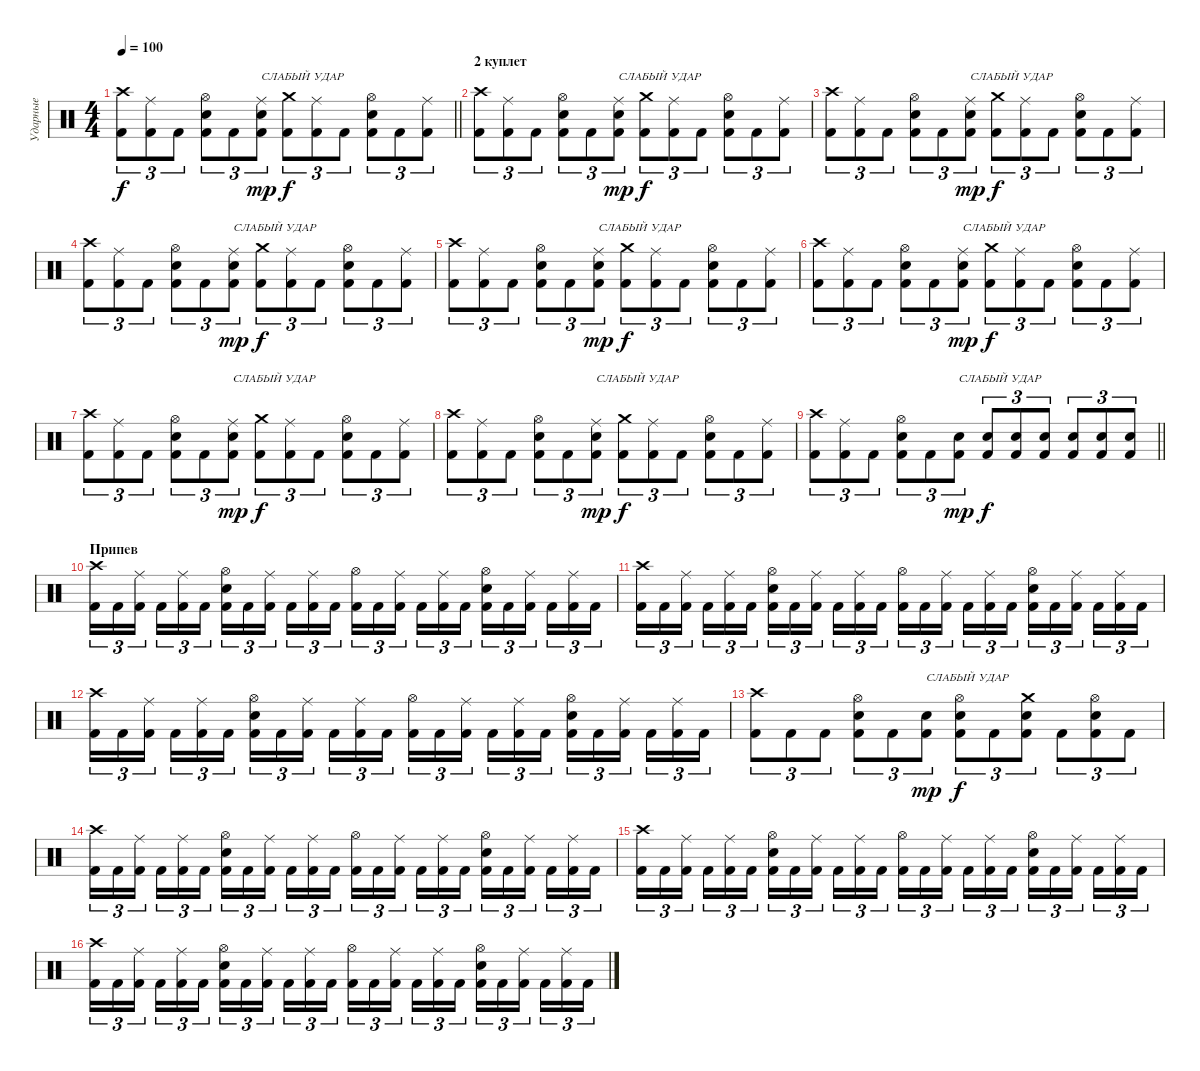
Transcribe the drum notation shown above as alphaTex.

\track ("Ударные" "Ударные") {instrument percussion}
\staff {score}
\articulation defaults
\ts (4 4)
\tempo 100
\clef neutral
\barLineRight lightlight
\ks c
("Kick (hit) 2" "Crash high (hit)").8{tu (3 2) dy f} ("Kick (hit) 2" "Ride (middle)").8{tu (3 2)} "Kick (hit) 2".8{tu (3 2)} ("Kick (hit) 2" "Snare (hit) 2" "Hi-Hat (open)").8{tu (3 2)} "Kick (hit) 2".8{tu (3 2)} ("Kick (hit) 2" "Snare (hit) 2" "Ride (middle)").8{tu (3 2) txt "СЛАБЫЙ УДАР" dy mp} ("Kick (hit) 2" "Crash medium (hit)").8{tu (3 2) dy f} ("Kick (hit) 2" "Ride (middle)").8{tu (3 2)} "Kick (hit) 2".8{tu (3 2)} ("Kick (hit) 2" "Snare (hit) 2" "Hi-Hat (open)").8{tu (3 2)} "Kick (hit) 2".8{tu (3 2)} ("Kick (hit) 2" "Ride (middle)").8{tu (3 2)} |
\section ("" "2 куплет")
("Kick (hit) 2" "Crash high (hit)").8{tu (3 2)} ("Kick (hit) 2" "Ride (middle)").8{tu (3 2)} "Kick (hit) 2".8{tu (3 2)} ("Kick (hit) 2" "Snare (hit) 2" "Hi-Hat (open)").8{tu (3 2)} "Kick (hit) 2".8{tu (3 2)} ("Kick (hit) 2" "Snare (hit) 2" "Ride (middle)").8{tu (3 2) txt "СЛАБЫЙ УДАР" dy mp} ("Kick (hit) 2" "Crash medium (hit)").8{tu (3 2) dy f} ("Kick (hit) 2" "Ride (middle)").8{tu (3 2)} "Kick (hit) 2".8{tu (3 2)} ("Kick (hit) 2" "Snare (hit) 2" "Hi-Hat (open)").8{tu (3 2)} "Kick (hit) 2".8{tu (3 2)} ("Kick (hit) 2" "Ride (middle)").8{tu (3 2)} |
("Kick (hit) 2" "Crash high (hit)").8{tu (3 2)} ("Kick (hit) 2" "Ride (middle)").8{tu (3 2)} "Kick (hit) 2".8{tu (3 2)} ("Kick (hit) 2" "Snare (hit) 2" "Hi-Hat (open)").8{tu (3 2)} "Kick (hit) 2".8{tu (3 2)} ("Kick (hit) 2" "Snare (hit) 2" "Ride (middle)").8{tu (3 2) txt "СЛАБЫЙ УДАР" dy mp} ("Kick (hit) 2" "Crash medium (hit)").8{tu (3 2) dy f} ("Kick (hit) 2" "Ride (middle)").8{tu (3 2)} "Kick (hit) 2".8{tu (3 2)} ("Kick (hit) 2" "Snare (hit) 2" "Hi-Hat (open)").8{tu (3 2)} "Kick (hit) 2".8{tu (3 2)} ("Kick (hit) 2" "Ride (middle)").8{tu (3 2)} |
("Kick (hit) 2" "Crash high (hit)").8{tu (3 2)} ("Kick (hit) 2" "Ride (middle)").8{tu (3 2)} "Kick (hit) 2".8{tu (3 2)} ("Kick (hit) 2" "Snare (hit) 2" "Hi-Hat (open)").8{tu (3 2)} "Kick (hit) 2".8{tu (3 2)} ("Kick (hit) 2" "Snare (hit) 2" "Ride (middle)").8{tu (3 2) txt "СЛАБЫЙ УДАР" dy mp} ("Kick (hit) 2" "Crash medium (hit)").8{tu (3 2) dy f} ("Kick (hit) 2" "Ride (middle)").8{tu (3 2)} "Kick (hit) 2".8{tu (3 2)} ("Kick (hit) 2" "Snare (hit) 2" "Hi-Hat (open)").8{tu (3 2)} "Kick (hit) 2".8{tu (3 2)} ("Kick (hit) 2" "Ride (middle)").8{tu (3 2)} |
("Kick (hit) 2" "Crash high (hit)").8{tu (3 2)} ("Kick (hit) 2" "Ride (middle)").8{tu (3 2)} "Kick (hit) 2".8{tu (3 2)} ("Kick (hit) 2" "Snare (hit) 2" "Hi-Hat (open)").8{tu (3 2)} "Kick (hit) 2".8{tu (3 2)} ("Kick (hit) 2" "Snare (hit) 2" "Ride (middle)").8{tu (3 2) txt "СЛАБЫЙ УДАР" dy mp} ("Kick (hit) 2" "Crash medium (hit)").8{tu (3 2) dy f} ("Kick (hit) 2" "Ride (middle)").8{tu (3 2)} "Kick (hit) 2".8{tu (3 2)} ("Kick (hit) 2" "Snare (hit) 2" "Hi-Hat (open)").8{tu (3 2)} "Kick (hit) 2".8{tu (3 2)} ("Kick (hit) 2" "Ride (middle)").8{tu (3 2)} |
("Kick (hit) 2" "Crash high (hit)").8{tu (3 2)} ("Kick (hit) 2" "Ride (middle)").8{tu (3 2)} "Kick (hit) 2".8{tu (3 2)} ("Kick (hit) 2" "Snare (hit) 2" "Hi-Hat (open)").8{tu (3 2)} "Kick (hit) 2".8{tu (3 2)} ("Kick (hit) 2" "Snare (hit) 2" "Ride (middle)").8{tu (3 2) txt "СЛАБЫЙ УДАР" dy mp} ("Kick (hit) 2" "Crash medium (hit)").8{tu (3 2) dy f} ("Kick (hit) 2" "Ride (middle)").8{tu (3 2)} "Kick (hit) 2".8{tu (3 2)} ("Kick (hit) 2" "Snare (hit) 2" "Hi-Hat (open)").8{tu (3 2)} "Kick (hit) 2".8{tu (3 2)} ("Kick (hit) 2" "Ride (middle)").8{tu (3 2)} |
("Kick (hit) 2" "Crash high (hit)").8{tu (3 2)} ("Kick (hit) 2" "Ride (middle)").8{tu (3 2)} "Kick (hit) 2".8{tu (3 2)} ("Kick (hit) 2" "Snare (hit) 2" "Hi-Hat (open)").8{tu (3 2)} "Kick (hit) 2".8{tu (3 2)} ("Kick (hit) 2" "Snare (hit) 2" "Ride (middle)").8{tu (3 2) txt "СЛАБЫЙ УДАР" dy mp} ("Kick (hit) 2" "Crash medium (hit)").8{tu (3 2) dy f} ("Kick (hit) 2" "Ride (middle)").8{tu (3 2)} "Kick (hit) 2".8{tu (3 2)} ("Kick (hit) 2" "Snare (hit) 2" "Hi-Hat (open)").8{tu (3 2)} "Kick (hit) 2".8{tu (3 2)} ("Kick (hit) 2" "Ride (middle)").8{tu (3 2)} |
("Kick (hit) 2" "Crash high (hit)").8{tu (3 2)} ("Kick (hit) 2" "Ride (middle)").8{tu (3 2)} "Kick (hit) 2".8{tu (3 2)} ("Kick (hit) 2" "Snare (hit) 2" "Hi-Hat (open)").8{tu (3 2)} "Kick (hit) 2".8{tu (3 2)} ("Kick (hit) 2" "Snare (hit) 2" "Ride (middle)").8{tu (3 2) txt "СЛАБЫЙ УДАР" dy mp} ("Kick (hit) 2" "Crash medium (hit)").8{tu (3 2) dy f} ("Kick (hit) 2" "Ride (middle)").8{tu (3 2)} "Kick (hit) 2".8{tu (3 2)} ("Kick (hit) 2" "Snare (hit) 2" "Hi-Hat (open)").8{tu (3 2)} "Kick (hit) 2".8{tu (3 2)} ("Kick (hit) 2" "Ride (middle)").8{tu (3 2)} |
\barLineRight lightlight
("Kick (hit) 2" "Crash high (hit)").8{tu (3 2)} ("Kick (hit) 2" "Ride (middle)").8{tu (3 2)} "Kick (hit) 2".8{tu (3 2)} ("Kick (hit) 2" "Snare (hit) 2" "Hi-Hat (open)").8{tu (3 2)} "Kick (hit) 2".8{tu (3 2)} ("Kick (hit) 2" "Snare (hit) 2").8{tu (3 2) txt "СЛАБЫЙ УДАР" dy mp} ("Kick (hit) 2" "Snare (hit) 2").8{tu (3 2) dy f} ("Kick (hit) 2" "Snare (hit) 2").8{tu (3 2)} ("Kick (hit) 2" "Snare (hit) 2").8{tu (3 2)} ("Kick (hit) 2" "Snare (hit) 2").8{tu (3 2)} ("Kick (hit) 2" "Snare (hit) 2").8{tu (3 2)} ("Kick (hit) 2" "Snare (hit) 2").8{tu (3 2)} |
\section ("" "Припев")
("Kick (hit) 2" "Crash high (hit)").16{tu (3 2)} "Kick (hit) 2".16{tu (3 2)} ("Kick (hit) 2" "Ride (middle)").16{tu (3 2) beam splitsecondary} "Kick (hit) 2".16{tu (3 2)} ("Kick (hit) 2" "Ride (middle)").16{tu (3 2)} "Kick (hit) 2".16{tu (3 2)} ("Kick (hit) 2" "Snare (hit) 2" "Hi-Hat (open)").16{tu (3 2)} "Kick (hit) 2".16{tu (3 2)} ("Kick (hit) 2" "Ride (middle)").16{tu (3 2) beam splitsecondary} "Kick (hit) 2".16{tu (3 2)} ("Kick (hit) 2" "Ride (middle)").16{tu (3 2)} "Kick (hit) 2".16{tu (3 2)} ("Kick (hit) 2" "Hi-Hat (open)").16{tu (3 2)} "Kick (hit) 2".16{tu (3 2)} ("Kick (hit) 2" "Ride (middle)").16{tu (3 2) beam splitsecondary} "Kick (hit) 2".16{tu (3 2)} ("Kick (hit) 2" "Ride (middle)").16{tu (3 2)} "Kick (hit) 2".16{tu (3 2)} ("Kick (hit) 2" "Snare (hit) 2" "Hi-Hat (open)").16{tu (3 2)} "Kick (hit) 2".16{tu (3 2)} ("Kick (hit) 2" "Ride (middle)").16{tu (3 2) beam splitsecondary} "Kick (hit) 2".16{tu (3 2)} ("Kick (hit) 2" "Ride (middle)").16{tu (3 2)} "Kick (hit) 2".16{tu (3 2)} |
("Kick (hit) 2" "Crash high (hit)").16{tu (3 2)} "Kick (hit) 2".16{tu (3 2)} ("Kick (hit) 2" "Ride (middle)").16{tu (3 2) beam splitsecondary} "Kick (hit) 2".16{tu (3 2)} ("Kick (hit) 2" "Ride (middle)").16{tu (3 2)} "Kick (hit) 2".16{tu (3 2)} ("Kick (hit) 2" "Snare (hit) 2" "Hi-Hat (open)").16{tu (3 2)} "Kick (hit) 2".16{tu (3 2)} ("Kick (hit) 2" "Ride (middle)").16{tu (3 2) beam splitsecondary} "Kick (hit) 2".16{tu (3 2)} ("Kick (hit) 2" "Ride (middle)").16{tu (3 2)} "Kick (hit) 2".16{tu (3 2)} ("Kick (hit) 2" "Hi-Hat (open)").16{tu (3 2)} "Kick (hit) 2".16{tu (3 2)} ("Kick (hit) 2" "Ride (middle)").16{tu (3 2) beam splitsecondary} "Kick (hit) 2".16{tu (3 2)} ("Kick (hit) 2" "Ride (middle)").16{tu (3 2)} "Kick (hit) 2".16{tu (3 2)} ("Kick (hit) 2" "Snare (hit) 2" "Hi-Hat (open)").16{tu (3 2)} "Kick (hit) 2".16{tu (3 2)} ("Kick (hit) 2" "Ride (middle)").16{tu (3 2) beam splitsecondary} "Kick (hit) 2".16{tu (3 2)} ("Kick (hit) 2" "Ride (middle)").16{tu (3 2)} "Kick (hit) 2".16{tu (3 2)} |
("Kick (hit) 2" "Crash high (hit)").16{tu (3 2)} "Kick (hit) 2".16{tu (3 2)} ("Kick (hit) 2" "Ride (middle)").16{tu (3 2) beam splitsecondary} "Kick (hit) 2".16{tu (3 2)} ("Kick (hit) 2" "Ride (middle)").16{tu (3 2)} "Kick (hit) 2".16{tu (3 2)} ("Kick (hit) 2" "Snare (hit) 2" "Hi-Hat (open)").16{tu (3 2)} "Kick (hit) 2".16{tu (3 2)} ("Kick (hit) 2" "Ride (middle)").16{tu (3 2) beam splitsecondary} "Kick (hit) 2".16{tu (3 2)} ("Kick (hit) 2" "Ride (middle)").16{tu (3 2)} "Kick (hit) 2".16{tu (3 2)} ("Kick (hit) 2" "Hi-Hat (open)").16{tu (3 2)} "Kick (hit) 2".16{tu (3 2)} ("Kick (hit) 2" "Ride (middle)").16{tu (3 2) beam splitsecondary} "Kick (hit) 2".16{tu (3 2)} ("Kick (hit) 2" "Ride (middle)").16{tu (3 2)} "Kick (hit) 2".16{tu (3 2)} ("Kick (hit) 2" "Snare (hit) 2" "Hi-Hat (open)").16{tu (3 2)} "Kick (hit) 2".16{tu (3 2)} ("Kick (hit) 2" "Ride (middle)").16{tu (3 2) beam splitsecondary} "Kick (hit) 2".16{tu (3 2)} ("Kick (hit) 2" "Ride (middle)").16{tu (3 2)} "Kick (hit) 2".16{tu (3 2)} |
("Kick (hit) 2" "Crash high (hit)").8{tu (3 2)} "Kick (hit) 2".8{tu (3 2)} "Kick (hit) 2".8{tu (3 2)} ("Kick (hit) 2" "Snare (hit) 2" "Hi-Hat (open)").8{tu (3 2)} "Kick (hit) 2".8{tu (3 2)} ("Kick (hit) 2" "Snare (hit) 2").8{tu (3 2) txt "СЛАБЫЙ УДАР" dy mp} ("Kick (hit) 2" "Snare (hit) 2" "Hi-Hat (open)").8{tu (3 2) dy f} "Kick (hit) 2".8{tu (3 2)} ("Kick (hit) 2" "Snare (hit) 2" "Crash medium (hit)").8{tu (3 2)} "Kick (hit) 2".8{tu (3 2)} ("Kick (hit) 2" "Snare (hit) 2" "Hi-Hat (open)").8{tu (3 2)} "Kick (hit) 2".8{tu (3 2)} |
("Kick (hit) 2" "Crash high (hit)").16{tu (3 2)} "Kick (hit) 2".16{tu (3 2)} ("Kick (hit) 2" "Ride (middle)").16{tu (3 2) beam splitsecondary} "Kick (hit) 2".16{tu (3 2)} ("Kick (hit) 2" "Ride (middle)").16{tu (3 2)} "Kick (hit) 2".16{tu (3 2)} ("Kick (hit) 2" "Snare (hit) 2" "Hi-Hat (open)").16{tu (3 2)} "Kick (hit) 2".16{tu (3 2)} ("Kick (hit) 2" "Ride (middle)").16{tu (3 2) beam splitsecondary} "Kick (hit) 2".16{tu (3 2)} ("Kick (hit) 2" "Ride (middle)").16{tu (3 2)} "Kick (hit) 2".16{tu (3 2)} ("Kick (hit) 2" "Hi-Hat (open)").16{tu (3 2)} "Kick (hit) 2".16{tu (3 2)} ("Kick (hit) 2" "Ride (middle)").16{tu (3 2) beam splitsecondary} "Kick (hit) 2".16{tu (3 2)} ("Kick (hit) 2" "Ride (middle)").16{tu (3 2)} "Kick (hit) 2".16{tu (3 2)} ("Kick (hit) 2" "Snare (hit) 2" "Hi-Hat (open)").16{tu (3 2)} "Kick (hit) 2".16{tu (3 2)} ("Kick (hit) 2" "Ride (middle)").16{tu (3 2) beam splitsecondary} "Kick (hit) 2".16{tu (3 2)} ("Kick (hit) 2" "Ride (middle)").16{tu (3 2)} "Kick (hit) 2".16{tu (3 2)} |
("Kick (hit) 2" "Crash high (hit)").16{tu (3 2)} "Kick (hit) 2".16{tu (3 2)} ("Kick (hit) 2" "Ride (middle)").16{tu (3 2) beam splitsecondary} "Kick (hit) 2".16{tu (3 2)} ("Kick (hit) 2" "Ride (middle)").16{tu (3 2)} "Kick (hit) 2".16{tu (3 2)} ("Kick (hit) 2" "Snare (hit) 2" "Hi-Hat (open)").16{tu (3 2)} "Kick (hit) 2".16{tu (3 2)} ("Kick (hit) 2" "Ride (middle)").16{tu (3 2) beam splitsecondary} "Kick (hit) 2".16{tu (3 2)} ("Kick (hit) 2" "Ride (middle)").16{tu (3 2)} "Kick (hit) 2".16{tu (3 2)} ("Kick (hit) 2" "Hi-Hat (open)").16{tu (3 2)} "Kick (hit) 2".16{tu (3 2)} ("Kick (hit) 2" "Ride (middle)").16{tu (3 2) beam splitsecondary} "Kick (hit) 2".16{tu (3 2)} ("Kick (hit) 2" "Ride (middle)").16{tu (3 2)} "Kick (hit) 2".16{tu (3 2)} ("Kick (hit) 2" "Snare (hit) 2" "Hi-Hat (open)").16{tu (3 2)} "Kick (hit) 2".16{tu (3 2)} ("Kick (hit) 2" "Ride (middle)").16{tu (3 2) beam splitsecondary} "Kick (hit) 2".16{tu (3 2)} ("Kick (hit) 2" "Ride (middle)").16{tu (3 2)} "Kick (hit) 2".16{tu (3 2)} |
("Kick (hit) 2" "Crash high (hit)").16{tu (3 2)} "Kick (hit) 2".16{tu (3 2)} ("Kick (hit) 2" "Ride (middle)").16{tu (3 2) beam splitsecondary} "Kick (hit) 2".16{tu (3 2)} ("Kick (hit) 2" "Ride (middle)").16{tu (3 2)} "Kick (hit) 2".16{tu (3 2)} ("Kick (hit) 2" "Snare (hit) 2" "Hi-Hat (open)").16{tu (3 2)} "Kick (hit) 2".16{tu (3 2)} ("Kick (hit) 2" "Ride (middle)").16{tu (3 2) beam splitsecondary} "Kick (hit) 2".16{tu (3 2)} ("Kick (hit) 2" "Ride (middle)").16{tu (3 2)} "Kick (hit) 2".16{tu (3 2)} ("Kick (hit) 2" "Hi-Hat (open)").16{tu (3 2)} "Kick (hit) 2".16{tu (3 2)} ("Kick (hit) 2" "Ride (middle)").16{tu (3 2) beam splitsecondary} "Kick (hit) 2".16{tu (3 2)} ("Kick (hit) 2" "Ride (middle)").16{tu (3 2)} "Kick (hit) 2".16{tu (3 2)} ("Kick (hit) 2" "Snare (hit) 2" "Hi-Hat (open)").16{tu (3 2)} "Kick (hit) 2".16{tu (3 2)} ("Kick (hit) 2" "Ride (middle)").16{tu (3 2) beam splitsecondary} "Kick (hit) 2".16{tu (3 2)} ("Kick (hit) 2" "Ride (middle)").16{tu (3 2)} "Kick (hit) 2".16{tu (3 2)}
